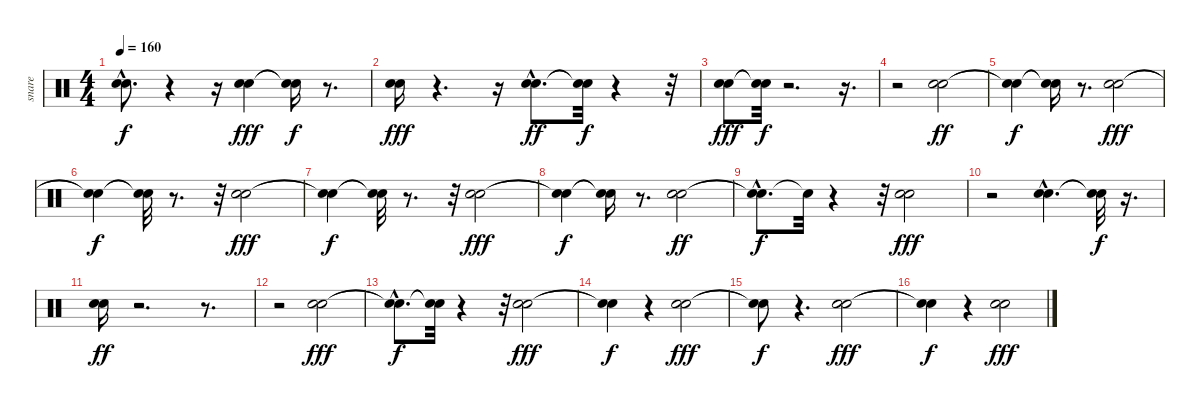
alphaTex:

\track ("snare" "snare") {instrument percussion}
\staff {score}
\articulation defaults
\ts (4 4)
\tempo 160
\clef neutral
\ks c
("Snare (hit)"{t} "Snare (hit)"{hac t}).8{d dy f} r.4 r.16 ("Snare (hit) 2" "Electric Snare (hit)").4{dy fff} ("Snare (hit)"{t} "Snare (hit)"{t}).16{dy f} r.8{d} |
("Electric Snare (hit)" "Snare (hit) 2").16{dy fff} r.4{d} r.16 ("Electric Snare (hit)"{hac} "Snare (hit) 2"{hac}).8{d dy ff} ("Snare (hit)"{t} "Snare (hit)"{t}).32{dy f} r.4 r.32 |
("Electric Snare (hit)" "Snare (hit) 2").8{dy fff} ("Snare (hit)"{t} "Snare (hit)"{t}).32{dy f} r.2{d} r.16{d} |
r.2 ("Hand Clap (hit)" "Snare (hit) 2").2{dy ff} |
("Snare (hit)"{t} "Snare (hit)"{t}).4{dy f} ("Snare (hit)"{t} "Snare (hit)"{t}).16 r.8{d} ("Hand Clap (hit)" "Snare (hit) 2").2{dy fff} |
("Snare (hit)"{t} "Snare (hit)"{t}).4{dy f} ("Snare (hit)"{t} "Snare (hit)"{t}).32 r.8{d} r.32 ("Hand Clap (hit)" "Snare (hit) 2").2{dy fff} |
("Snare (hit)"{t} "Snare (hit)"{t}).4{dy f} ("Snare (hit)"{t} "Snare (hit)"{t}).32 r.8{d} r.32 ("Hand Clap (hit)" "Snare (hit) 2").2{dy fff} |
("Snare (hit)"{t} "Snare (hit)"{t}).4{dy f} ("Snare (hit)"{t} "Snare (hit)"{t}).16 r.8{d} ("Hand Clap (hit)" "Snare (hit) 2").2{dy ff} |
("Snare (hit)"{hac t} "Snare (hit)"{hac t}).8{d dy f} "Snare (hit)"{t}.32 r.4 r.32 ("Hand Clap (hit)" "Snare (hit) 2").2{dy fff} |
r.2 ("Hand Clap (hit)"{hac} "Snare (hit) 2"{hac}).4{d} ("Snare (hit)"{t} "Snare (hit)"{t}).32{dy f} r.16{d} |
("Hand Clap (hit)" "Snare (hit) 2").16{dy ff} r.2{d} r.8{d} |
r.2 ("Electric Snare (hit)" "Snare (hit) 2").2{dy fff} |
("Snare (hit)"{hac t} "Snare (hit)"{hac t}).8{d dy f} ("Snare (hit)"{t} "Snare (hit)"{t}).32 r.4 r.32 ("Snare (hit) 2" "Electric Snare (hit)").2{dy fff} |
("Snare (hit)"{t} "Snare (hit)"{t}).4{dy f} r.4 ("Snare (hit) 2" "Electric Snare (hit)").2{dy fff} |
("Snare (hit)"{t} "Snare (hit)"{t}).8{dy f} r.4{d} ("Snare (hit) 2" "Electric Snare (hit)").2{dy fff} |
("Snare (hit)"{t} "Snare (hit)"{t}).4{dy f} r.4 ("Snare (hit) 2" "Electric Snare (hit)").2{dy fff}
